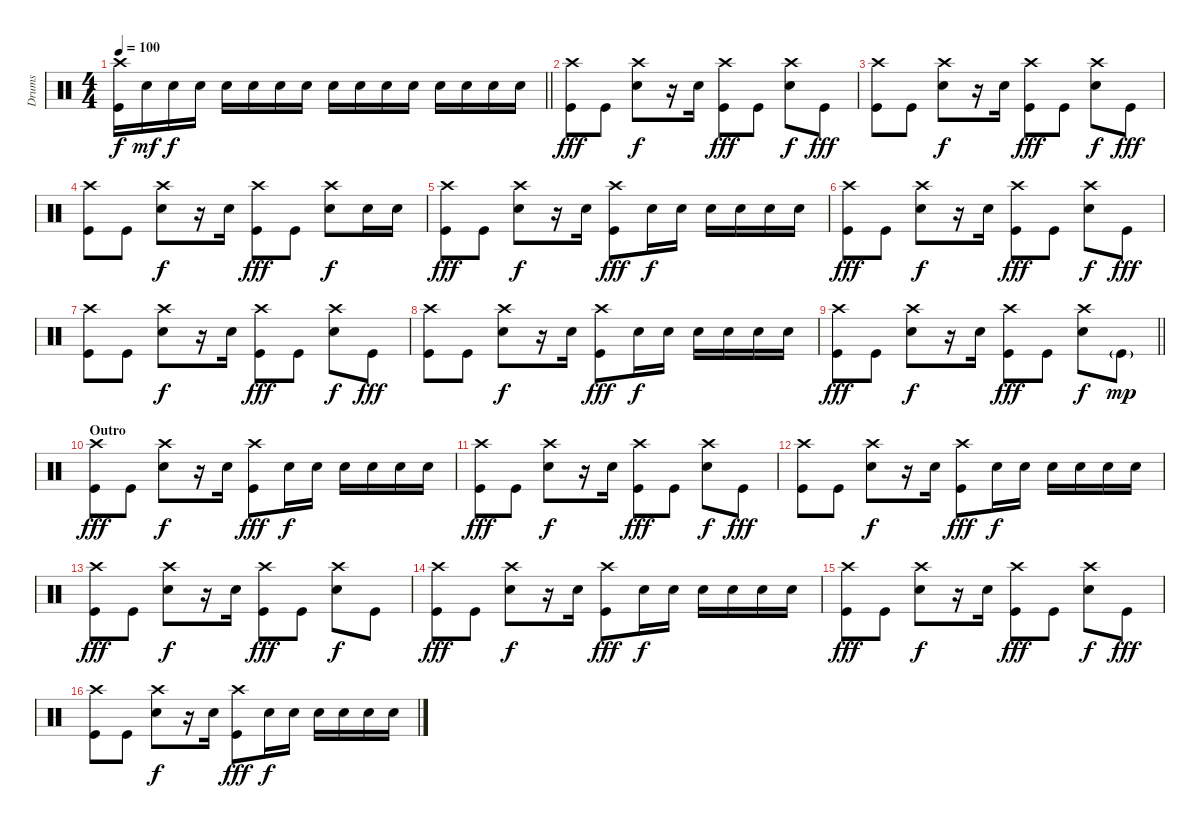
\track ("Drums" "Drums") {instrument percussion}
\staff {score}
\articulation defaults
\ts (4 4)
\tempo 100
\clef neutral
\barLineRight lightlight
\ks c
("Crash high (hit)" "Kick (hit)").16{dy f} "Electric Snare (hit)".16{dy mf} "Electric Snare (hit)".16{dy f} "Electric Snare (hit)".16 "Electric Snare (hit)".16 "Electric Snare (hit)".16 "Electric Snare (hit)".16 "Electric Snare (hit)".16 "Electric Snare (hit)".16 "Electric Snare (hit)".16 "Electric Snare (hit)".16 "Electric Snare (hit)".16 "Electric Snare (hit)".16 "Electric Snare (hit)".16 "Electric Snare (hit)".16 "Electric Snare (hit)".16 |
("Crash high (hit)" "Kick (hit)").8{dy fff} "Kick (hit)".8 ("Crash high (hit)" "Electric Snare (hit)").8{dy f} r.16 "Electric Snare (hit)".16 ("Crash high (hit)" "Kick (hit)").8{dy fff} "Kick (hit)".8 ("Crash high (hit)" "Electric Snare (hit)").8{dy f} "Kick (hit)".8{dy fff} |
("Crash high (hit)" "Kick (hit)").8 "Kick (hit)".8 ("Crash high (hit)" "Electric Snare (hit)").8{dy f} r.16 "Electric Snare (hit)".16 ("Crash high (hit)" "Kick (hit)").8{dy fff} "Kick (hit)".8 ("Crash high (hit)" "Electric Snare (hit)").8{dy f} "Kick (hit)".8{dy fff} |
("Crash high (hit)" "Kick (hit)").8 "Kick (hit)".8 ("Crash high (hit)" "Electric Snare (hit)").8{dy f} r.16 "Electric Snare (hit)".16 ("Crash high (hit)" "Kick (hit)").8{dy fff} "Kick (hit)".8 ("Crash high (hit)" "Electric Snare (hit)").8{dy f} "Electric Snare (hit)".16 "Electric Snare (hit)".16 |
("Crash high (hit)" "Kick (hit)").8{dy fff} "Kick (hit)".8 ("Crash high (hit)" "Electric Snare (hit)").8{dy f} r.16 "Electric Snare (hit)".16 ("Crash high (hit)" "Kick (hit)").8{dy fff} "Electric Snare (hit)".16{dy f} "Electric Snare (hit)".16 "Electric Snare (hit)".16 "Electric Snare (hit)".16 "Electric Snare (hit)".16 "Electric Snare (hit)".16 |
("Crash high (hit)" "Kick (hit)").8{dy fff} "Kick (hit)".8 ("Crash high (hit)" "Electric Snare (hit)").8{dy f} r.16 "Electric Snare (hit)".16 ("Crash high (hit)" "Kick (hit)").8{dy fff} "Kick (hit)".8 ("Crash high (hit)" "Electric Snare (hit)").8{dy f} "Kick (hit)".8{dy fff} |
("Crash high (hit)" "Kick (hit)").8 "Kick (hit)".8 ("Crash high (hit)" "Electric Snare (hit)").8{dy f} r.16 "Electric Snare (hit)".16 ("Crash high (hit)" "Kick (hit)").8{dy fff} "Kick (hit)".8 ("Crash high (hit)" "Electric Snare (hit)").8{dy f} "Kick (hit)".8{dy fff} |
("Crash high (hit)" "Kick (hit)").8 "Kick (hit)".8 ("Crash high (hit)" "Electric Snare (hit)").8{dy f} r.16 "Electric Snare (hit)".16 ("Crash high (hit)" "Kick (hit)").8{dy fff} "Electric Snare (hit)".16{dy f} "Electric Snare (hit)".16 "Electric Snare (hit)".16 "Electric Snare (hit)".16 "Electric Snare (hit)".16 "Electric Snare (hit)".16 |
\barLineRight lightlight
("Crash high (hit)" "Kick (hit)").8{dy fff} "Kick (hit)".8 ("Crash high (hit)" "Electric Snare (hit)").8{dy f} r.16 "Electric Snare (hit)".16 ("Crash high (hit)" "Kick (hit)").8{dy fff} "Kick (hit)".8 ("Crash high (hit)" "Electric Snare (hit)").8{dy f} "Kick (hit)"{g}.8{dy mp} |
\section ("" "Outro")
("Crash high (hit)" "Kick (hit)").8{dy fff} "Kick (hit)".8 ("Crash high (hit)" "Electric Snare (hit)").8{dy f} r.16 "Electric Snare (hit)".16 ("Crash high (hit)" "Kick (hit)").8{dy fff} "Electric Snare (hit)".16{dy f} "Electric Snare (hit)".16 "Electric Snare (hit)".16 "Electric Snare (hit)".16 "Electric Snare (hit)".16 "Electric Snare (hit)".16 |
("Crash high (hit)" "Kick (hit)").8{dy fff} "Kick (hit)".8 ("Crash high (hit)" "Electric Snare (hit)").8{dy f} r.16 "Electric Snare (hit)".16 ("Crash high (hit)" "Kick (hit)").8{dy fff} "Kick (hit)".8 ("Crash high (hit)" "Electric Snare (hit)").8{dy f} "Kick (hit)".8{dy fff} |
("Crash high (hit)" "Kick (hit)").8 "Kick (hit)".8 ("Crash high (hit)" "Electric Snare (hit)").8{dy f} r.16 "Electric Snare (hit)".16 ("Crash high (hit)" "Kick (hit)").8{dy fff} "Electric Snare (hit)".16{dy f} "Electric Snare (hit)".16 "Electric Snare (hit)".16 "Electric Snare (hit)".16 "Electric Snare (hit)".16 "Electric Snare (hit)".16 |
("Crash high (hit)" "Kick (hit)").8{dy fff} "Kick (hit)".8 ("Crash high (hit)" "Electric Snare (hit)").8{dy f} r.16 "Electric Snare (hit)".16 ("Crash high (hit)" "Kick (hit)").8{dy fff} "Kick (hit)".8 ("Crash high (hit)" "Electric Snare (hit)").8{dy f} "Kick (hit)".8 |
("Crash high (hit)" "Kick (hit)").8{dy fff} "Kick (hit)".8 ("Crash high (hit)" "Electric Snare (hit)").8{dy f} r.16 "Electric Snare (hit)".16 ("Crash high (hit)" "Kick (hit)").8{dy fff} "Electric Snare (hit)".16{dy f} "Electric Snare (hit)".16 "Electric Snare (hit)".16 "Electric Snare (hit)".16 "Electric Snare (hit)".16 "Electric Snare (hit)".16 |
("Crash high (hit)" "Kick (hit)").8{dy fff} "Kick (hit)".8 ("Crash high (hit)" "Electric Snare (hit)").8{dy f} r.16 "Electric Snare (hit)".16 ("Crash high (hit)" "Kick (hit)").8{dy fff} "Kick (hit)".8 ("Crash high (hit)" "Electric Snare (hit)").8{dy f} "Kick (hit)".8{dy fff} |
("Crash high (hit)" "Kick (hit)").8 "Kick (hit)".8 ("Crash high (hit)" "Electric Snare (hit)").8{dy f} r.16 "Electric Snare (hit)".16 ("Crash high (hit)" "Kick (hit)").8{dy fff} "Electric Snare (hit)".16{dy f} "Electric Snare (hit)".16 "Electric Snare (hit)".16 "Electric Snare (hit)".16 "Electric Snare (hit)".16 "Electric Snare (hit)".16
